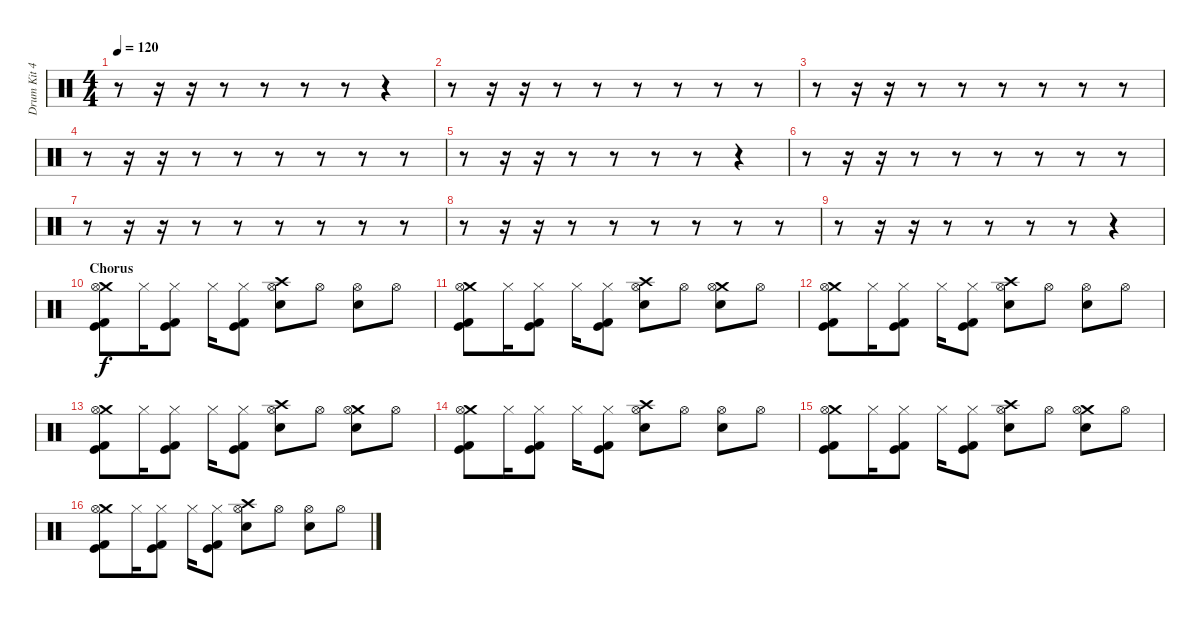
\track ("Drum Kit 42" "Drum Kit 4") {instrument percussion}
\staff {score}
\articulation defaults
\ts (4 4)
\tempo 120
\clef neutral
\ks c
r.8{dy f} r.16 r.16 r.8 r.8 r.8 r.8 r.4 |
r.8 r.16 r.16 r.8 r.8 r.8 r.8 r.8 r.8 |
r.8 r.16 r.16 r.8 r.8 r.8 r.8 r.8 r.8 |
r.8 r.16 r.16 r.8 r.8 r.8 r.8 r.8 r.8 |
r.8 r.16 r.16 r.8 r.8 r.8 r.8 r.4 |
r.8 r.16 r.16 r.8 r.8 r.8 r.8 r.8 r.8 |
r.8 r.16 r.16 r.8 r.8 r.8 r.8 r.8 r.8 |
r.8 r.16 r.16 r.8 r.8 r.8 r.8 r.8 r.8 |
r.8 r.16 r.16 r.8 r.8 r.8 r.8 r.4 |
\section ("" "Chorus")
("Crash medium (hit)" "Hi-Hat (open)" "Kick (hit)" "Kick (hit) 2").8 "Hi-Hat (closed)".16 ("Hi-Hat (closed)" "Kick (hit)" "Kick (hit) 2").8 "Hi-Hat (closed)".16 ("Hi-Hat (closed)" "Kick (hit)" "Kick (hit) 2").8 ("Crash high (hit)" "Hi-Hat (open)" "Snare (hit) 2").8 "Hi-Hat (open)".8 ("Hi-Hat (open)" "Snare (hit) 2").8 "Hi-Hat (open)".8 |
("Crash medium (hit)" "Hi-Hat (open)" "Kick (hit)" "Kick (hit) 2").8 "Hi-Hat (closed)".16 ("Hi-Hat (closed)" "Kick (hit)" "Kick (hit) 2").8 "Hi-Hat (closed)".16 ("Hi-Hat (closed)" "Kick (hit)" "Kick (hit) 2").8 ("Crash high (hit)" "Hi-Hat (open)" "Snare (hit) 2").8 "Hi-Hat (open)".8 ("Crash medium (hit)" "Hi-Hat (open)" "Snare (hit) 2").8 "Hi-Hat (open)".8 |
("Crash medium (hit)" "Hi-Hat (open)" "Kick (hit)" "Kick (hit) 2").8 "Hi-Hat (closed)".16 ("Hi-Hat (closed)" "Kick (hit)" "Kick (hit) 2").8 "Hi-Hat (closed)".16 ("Hi-Hat (closed)" "Kick (hit)" "Kick (hit) 2").8 ("Crash high (hit)" "Hi-Hat (open)" "Snare (hit) 2").8 "Hi-Hat (open)".8 ("Hi-Hat (open)" "Snare (hit) 2").8 "Hi-Hat (open)".8 |
("Crash medium (hit)" "Hi-Hat (open)" "Kick (hit)" "Kick (hit) 2").8 "Hi-Hat (closed)".16 ("Hi-Hat (closed)" "Kick (hit)" "Kick (hit) 2").8 "Hi-Hat (closed)".16 ("Hi-Hat (closed)" "Kick (hit)" "Kick (hit) 2").8 ("Crash high (hit)" "Hi-Hat (open)" "Snare (hit) 2").8 "Hi-Hat (open)".8 ("Crash medium (hit)" "Hi-Hat (open)" "Snare (hit) 2").8 "Hi-Hat (open)".8 |
("Crash medium (hit)" "Hi-Hat (open)" "Kick (hit)" "Kick (hit) 2").8 "Hi-Hat (closed)".16 ("Hi-Hat (closed)" "Kick (hit)" "Kick (hit) 2").8 "Hi-Hat (closed)".16 ("Hi-Hat (closed)" "Kick (hit)" "Kick (hit) 2").8 ("Crash high (hit)" "Hi-Hat (open)" "Snare (hit) 2").8 "Hi-Hat (open)".8 ("Hi-Hat (open)" "Snare (hit) 2").8 "Hi-Hat (open)".8 |
("Crash medium (hit)" "Hi-Hat (open)" "Kick (hit)" "Kick (hit) 2").8 "Hi-Hat (closed)".16 ("Hi-Hat (closed)" "Kick (hit)" "Kick (hit) 2").8 "Hi-Hat (closed)".16 ("Hi-Hat (closed)" "Kick (hit)" "Kick (hit) 2").8 ("Crash high (hit)" "Hi-Hat (open)" "Snare (hit) 2").8 "Hi-Hat (open)".8 ("Crash medium (hit)" "Hi-Hat (open)" "Snare (hit) 2").8 "Hi-Hat (open)".8 |
("Crash medium (hit)" "Hi-Hat (open)" "Kick (hit)" "Kick (hit) 2").8 "Hi-Hat (closed)".16 ("Hi-Hat (closed)" "Kick (hit)" "Kick (hit) 2").8 "Hi-Hat (closed)".16 ("Hi-Hat (closed)" "Kick (hit)" "Kick (hit) 2").8 ("Crash high (hit)" "Hi-Hat (open)" "Snare (hit) 2").8 "Hi-Hat (open)".8 ("Hi-Hat (open)" "Snare (hit) 2").8 "Hi-Hat (open)".8
